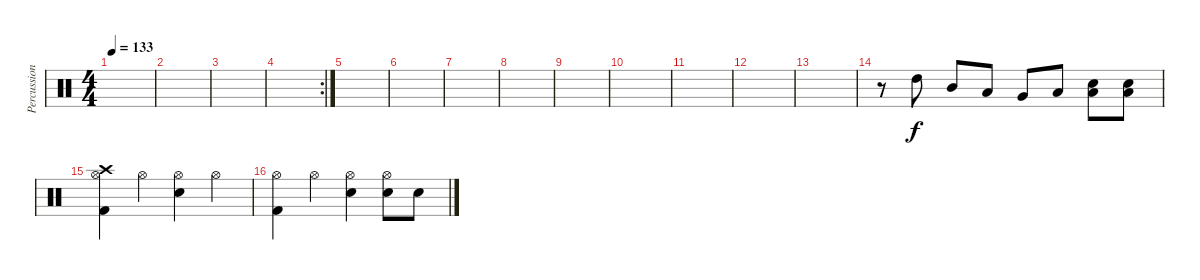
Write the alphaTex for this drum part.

\track ("Percussions" "Percussion") {instrument percussion}
\staff {score}
\articulation defaults
\ts (4 4)
\tempo 133
\clef neutral
\ks c
|
|
|
\rc 2
|
|
|
|
|
|
|
|
|
|
r.8 "High Tom (hit)".8 "Mid Tom (hit)".8 "Low Tom (hit)".8 "Very Low Tom (hit)".8 "Low Floor Tom (hit)".8 ("Low Floor Tom (hit)" "Electric Snare (hit)").8 ("Low Floor Tom (hit)" "Electric Snare (hit)").8 |
("Crash high (hit)" "Hi-Hat (open)" "Kick (hit) 2").4 "Hi-Hat (open)".4 ("Hi-Hat (open)" "Electric Snare (hit)").4 "Hi-Hat (open)".4 |
("Hi-Hat (open)" "Kick (hit) 2").4 "Hi-Hat (open)".4 ("Hi-Hat (open)" "Electric Snare (hit)").4 ("Hi-Hat (open)" "Electric Snare (hit)").8 "Electric Snare (hit)".8
